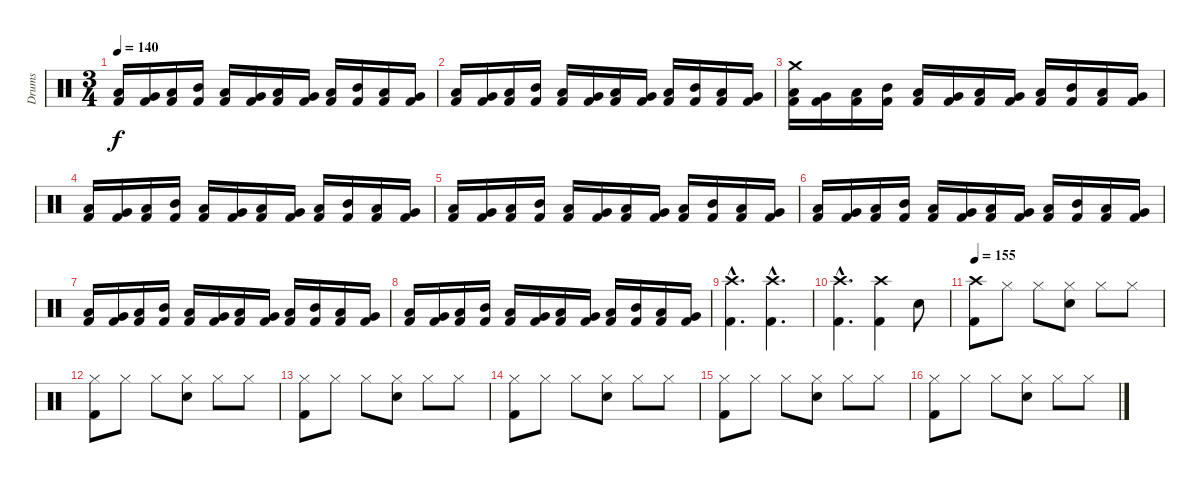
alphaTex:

\track ("Drums" "Drums") {instrument percussion}
\staff {score}
\articulation defaults
\ts (3 4)
\tempo 140
\clef neutral
\ks c
("Low Floor Tom (hit)" "Kick (hit) 2").16{dy f} ("Very Low Tom (hit)" "Kick (hit) 2").16 ("Low Tom (hit)" "Kick (hit) 2").16 ("Mid Tom (hit)" "Kick (hit) 2").16 ("Low Tom (hit)" "Kick (hit) 2").16 ("Very Low Tom (hit)" "Kick (hit) 2").16 ("Low Floor Tom (hit)" "Kick (hit) 2").16 ("Very Low Tom (hit)" "Kick (hit) 2").16 ("Low Tom (hit)" "Kick (hit) 2").16 ("Mid Tom (hit)" "Kick (hit) 2").16 ("Low Tom (hit)" "Kick (hit) 2").16 ("Very Low Tom (hit)" "Kick (hit) 2").16 |
("Low Floor Tom (hit)" "Kick (hit) 2").16 ("Very Low Tom (hit)" "Kick (hit) 2").16 ("Low Tom (hit)" "Kick (hit) 2").16 ("Mid Tom (hit)" "Kick (hit) 2").16 ("Low Tom (hit)" "Kick (hit) 2").16 ("Very Low Tom (hit)" "Kick (hit) 2").16 ("Low Floor Tom (hit)" "Kick (hit) 2").16 ("Very Low Tom (hit)" "Kick (hit) 2").16 ("Low Tom (hit)" "Kick (hit) 2").16 ("Mid Tom (hit)" "Kick (hit) 2").16 ("Low Tom (hit)" "Kick (hit) 2").16 ("Very Low Tom (hit)" "Kick (hit) 2").16 |
("Crash medium (hit)" "Low Floor Tom (hit)" "Kick (hit) 2").16 ("Very Low Tom (hit)" "Kick (hit) 2").16 ("Low Tom (hit)" "Kick (hit) 2").16 ("Mid Tom (hit)" "Kick (hit) 2").16 ("Low Tom (hit)" "Kick (hit) 2").16 ("Very Low Tom (hit)" "Kick (hit) 2").16 ("Low Floor Tom (hit)" "Kick (hit) 2").16 ("Very Low Tom (hit)" "Kick (hit) 2").16 ("Low Tom (hit)" "Kick (hit) 2").16 ("Mid Tom (hit)" "Kick (hit) 2").16 ("Low Tom (hit)" "Kick (hit) 2").16 ("Very Low Tom (hit)" "Kick (hit) 2").16 |
("Low Floor Tom (hit)" "Kick (hit) 2").16 ("Very Low Tom (hit)" "Kick (hit) 2").16 ("Low Tom (hit)" "Kick (hit) 2").16 ("Mid Tom (hit)" "Kick (hit) 2").16 ("Low Tom (hit)" "Kick (hit) 2").16 ("Very Low Tom (hit)" "Kick (hit) 2").16 ("Low Floor Tom (hit)" "Kick (hit) 2").16 ("Very Low Tom (hit)" "Kick (hit) 2").16 ("Low Tom (hit)" "Kick (hit) 2").16 ("Mid Tom (hit)" "Kick (hit) 2").16 ("Low Tom (hit)" "Kick (hit) 2").16 ("Very Low Tom (hit)" "Kick (hit) 2").16 |
("Low Floor Tom (hit)" "Kick (hit) 2").16 ("Very Low Tom (hit)" "Kick (hit) 2").16 ("Low Tom (hit)" "Kick (hit) 2").16 ("Mid Tom (hit)" "Kick (hit) 2").16 ("Low Tom (hit)" "Kick (hit) 2").16 ("Very Low Tom (hit)" "Kick (hit) 2").16 ("Low Floor Tom (hit)" "Kick (hit) 2").16 ("Very Low Tom (hit)" "Kick (hit) 2").16 ("Low Tom (hit)" "Kick (hit) 2").16 ("Mid Tom (hit)" "Kick (hit) 2").16 ("Low Tom (hit)" "Kick (hit) 2").16 ("Very Low Tom (hit)" "Kick (hit) 2").16 |
("Low Floor Tom (hit)" "Kick (hit) 2").16 ("Very Low Tom (hit)" "Kick (hit) 2").16 ("Low Tom (hit)" "Kick (hit) 2").16 ("Mid Tom (hit)" "Kick (hit) 2").16 ("Low Tom (hit)" "Kick (hit) 2").16 ("Very Low Tom (hit)" "Kick (hit) 2").16 ("Low Floor Tom (hit)" "Kick (hit) 2").16 ("Very Low Tom (hit)" "Kick (hit) 2").16 ("Low Tom (hit)" "Kick (hit) 2").16 ("Mid Tom (hit)" "Kick (hit) 2").16 ("Low Tom (hit)" "Kick (hit) 2").16 ("Very Low Tom (hit)" "Kick (hit) 2").16 |
("Low Floor Tom (hit)" "Kick (hit) 2").16 ("Very Low Tom (hit)" "Kick (hit) 2").16 ("Low Tom (hit)" "Kick (hit) 2").16 ("Mid Tom (hit)" "Kick (hit) 2").16 ("Low Tom (hit)" "Kick (hit) 2").16 ("Very Low Tom (hit)" "Kick (hit) 2").16 ("Low Floor Tom (hit)" "Kick (hit) 2").16 ("Very Low Tom (hit)" "Kick (hit) 2").16 ("Low Tom (hit)" "Kick (hit) 2").16 ("Mid Tom (hit)" "Kick (hit) 2").16 ("Low Tom (hit)" "Kick (hit) 2").16 ("Very Low Tom (hit)" "Kick (hit) 2").16 |
("Low Floor Tom (hit)" "Kick (hit) 2").16 ("Very Low Tom (hit)" "Kick (hit) 2").16 ("Low Tom (hit)" "Kick (hit) 2").16 ("Mid Tom (hit)" "Kick (hit) 2").16 ("Low Tom (hit)" "Kick (hit) 2").16 ("Very Low Tom (hit)" "Kick (hit) 2").16 ("Low Floor Tom (hit)" "Kick (hit) 2").16 ("Very Low Tom (hit)" "Kick (hit) 2").16 ("Low Tom (hit)" "Kick (hit) 2").16 ("Mid Tom (hit)" "Kick (hit) 2").16 ("Low Tom (hit)" "Kick (hit) 2").16 ("Very Low Tom (hit)" "Kick (hit) 2").16 |
("Crash high (hit)"{hac} "Kick (hit) 2"{hac}).4{d} ("Crash high (hit)"{hac} "Kick (hit) 2"{hac}).4{d} |
("Crash high (hit)"{hac} "Kick (hit) 2"{hac}).4{d} ("Crash high (hit)" "Kick (hit) 2").4 "Electric Snare (hit)".8 |
\tempo 155
("Crash high (hit)" "Kick (hit) 2").8 "Hi-Hat (closed)".8 "Hi-Hat (closed)".8 ("Hi-Hat (closed)" "Electric Snare (hit)").8 "Hi-Hat (closed)".8 "Hi-Hat (closed)".8 |
("Hi-Hat (closed)" "Kick (hit) 2").8 "Hi-Hat (closed)".8 "Hi-Hat (closed)".8 ("Hi-Hat (closed)" "Electric Snare (hit)").8 "Hi-Hat (closed)".8 "Hi-Hat (closed)".8 |
("Hi-Hat (closed)" "Kick (hit) 2").8 "Hi-Hat (closed)".8 "Hi-Hat (closed)".8 ("Hi-Hat (closed)" "Electric Snare (hit)").8 "Hi-Hat (closed)".8 "Hi-Hat (closed)".8 |
("Hi-Hat (closed)" "Kick (hit) 2").8 "Hi-Hat (closed)".8 "Hi-Hat (closed)".8 ("Hi-Hat (closed)" "Electric Snare (hit)").8 "Hi-Hat (closed)".8 "Hi-Hat (closed)".8 |
("Hi-Hat (closed)" "Kick (hit) 2").8 "Hi-Hat (closed)".8 "Hi-Hat (closed)".8 ("Hi-Hat (closed)" "Electric Snare (hit)").8 "Hi-Hat (closed)".8 "Hi-Hat (closed)".8 |
("Hi-Hat (closed)" "Kick (hit) 2").8 "Hi-Hat (closed)".8 "Hi-Hat (closed)".8 ("Hi-Hat (closed)" "Electric Snare (hit)").8 "Hi-Hat (closed)".8 "Hi-Hat (closed)".8
